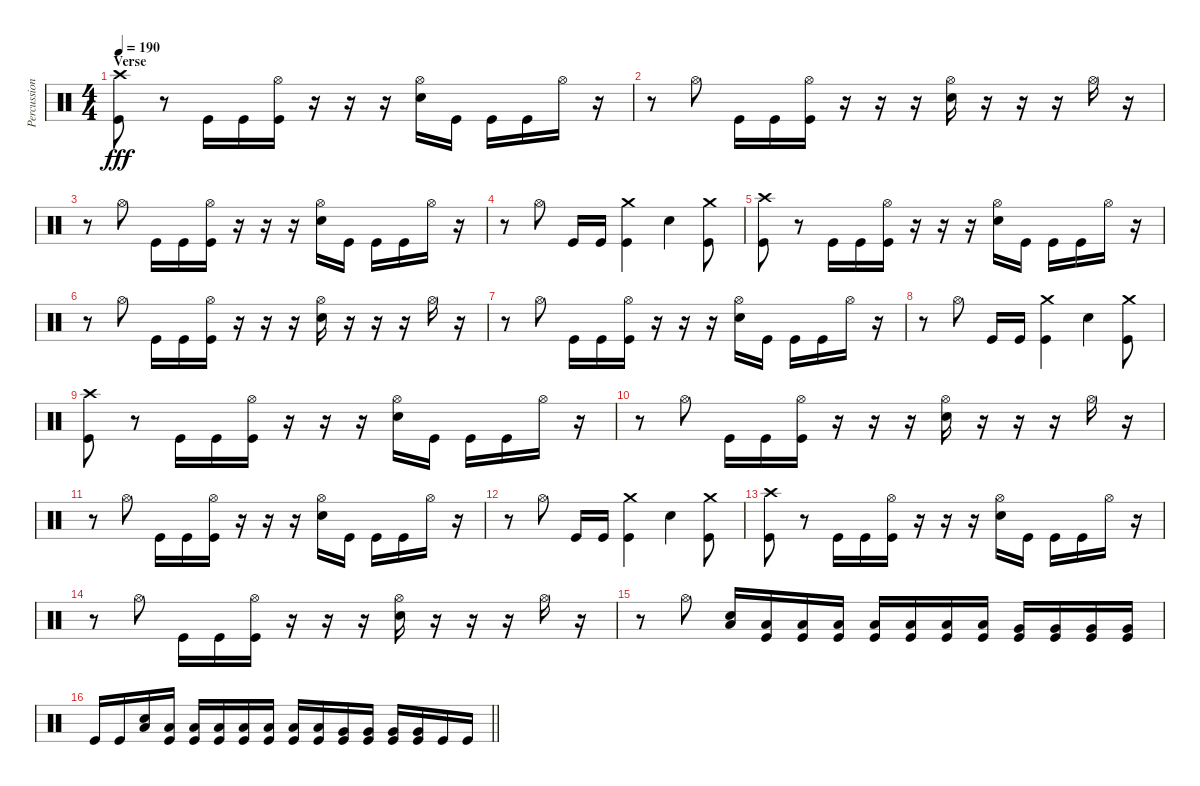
\track ("Percussioni" "Percussion") {instrument percussion}
\staff {score}
\articulation defaults
\ts (4 4)
\section ("" "Verse")
\tempo 190
\clef neutral
\ks c
("Crash high (hit)" "Kick (hit)").8{dy fff} r.8 "Kick (hit)".16 "Kick (hit)".16 ("Hi-Hat (open)" "Kick (hit)").16 r.16 r.16 r.16 ("Hi-Hat (open)" "Snare (hit) 2").16 "Kick (hit)".16 "Kick (hit)".16 "Kick (hit)".16 "Hi-Hat (open)".16 r.16 |
r.8 "Hi-Hat (open)".8 "Kick (hit)".16 "Kick (hit)".16 ("Hi-Hat (open)" "Kick (hit)").16 r.16 r.16 r.16 ("Hi-Hat (open)" "Snare (hit) 2").16 r.16 r.16 r.16 "Hi-Hat (open)".16 r.16 |
r.8 "Hi-Hat (open)".8 "Kick (hit)".16 "Kick (hit)".16 ("Hi-Hat (open)" "Kick (hit)").16 r.16 r.16 r.16 ("Hi-Hat (open)" "Snare (hit) 2").16 "Kick (hit)".16 "Kick (hit)".16 "Kick (hit)".16 "Hi-Hat (open)".16 r.16 |
r.8 "Hi-Hat (open)".8 "Kick (hit)".16 "Kick (hit)".16 ("Crash medium (hit)" "Kick (hit)").4 "Snare (hit) 2".4 ("Crash medium (hit)" "Kick (hit)").8 |
("Crash high (hit)" "Kick (hit)").8 r.8 "Kick (hit)".16 "Kick (hit)".16 ("Hi-Hat (open)" "Kick (hit)").16 r.16 r.16 r.16 ("Hi-Hat (open)" "Snare (hit) 2").16 "Kick (hit)".16 "Kick (hit)".16 "Kick (hit)".16 "Hi-Hat (open)".16 r.16 |
r.8 "Hi-Hat (open)".8 "Kick (hit)".16 "Kick (hit)".16 ("Hi-Hat (open)" "Kick (hit)").16 r.16 r.16 r.16 ("Hi-Hat (open)" "Snare (hit) 2").16 r.16 r.16 r.16 "Hi-Hat (open)".16 r.16 |
r.8 "Hi-Hat (open)".8 "Kick (hit)".16 "Kick (hit)".16 ("Hi-Hat (open)" "Kick (hit)").16 r.16 r.16 r.16 ("Hi-Hat (open)" "Snare (hit) 2").16 "Kick (hit)".16 "Kick (hit)".16 "Kick (hit)".16 "Hi-Hat (open)".16 r.16 |
r.8 "Hi-Hat (open)".8 "Kick (hit)".16 "Kick (hit)".16 ("Crash medium (hit)" "Kick (hit)").4 "Snare (hit) 2".4 ("Crash medium (hit)" "Kick (hit)").8 |
("Crash high (hit)" "Kick (hit)").8 r.8 "Kick (hit)".16 "Kick (hit)".16 ("Hi-Hat (open)" "Kick (hit)").16 r.16 r.16 r.16 ("Hi-Hat (open)" "Snare (hit) 2").16 "Kick (hit)".16 "Kick (hit)".16 "Kick (hit)".16 "Hi-Hat (open)".16 r.16 |
r.8 "Hi-Hat (open)".8 "Kick (hit)".16 "Kick (hit)".16 ("Hi-Hat (open)" "Kick (hit)").16 r.16 r.16 r.16 ("Hi-Hat (open)" "Snare (hit) 2").16 r.16 r.16 r.16 "Hi-Hat (open)".16 r.16 |
r.8 "Hi-Hat (open)".8 "Kick (hit)".16 "Kick (hit)".16 ("Hi-Hat (open)" "Kick (hit)").16 r.16 r.16 r.16 ("Hi-Hat (open)" "Snare (hit) 2").16 "Kick (hit)".16 "Kick (hit)".16 "Kick (hit)".16 "Hi-Hat (open)".16 r.16 |
r.8 "Hi-Hat (open)".8 "Kick (hit)".16 "Kick (hit)".16 ("Crash medium (hit)" "Kick (hit)").4 "Snare (hit) 2".4 ("Crash medium (hit)" "Kick (hit)").8 |
("Crash high (hit)" "Kick (hit)").8 r.8 "Kick (hit)".16 "Kick (hit)".16 ("Hi-Hat (open)" "Kick (hit)").16 r.16 r.16 r.16 ("Hi-Hat (open)" "Snare (hit) 2").16 "Kick (hit)".16 "Kick (hit)".16 "Kick (hit)".16 "Hi-Hat (open)".16 r.16 |
r.8 "Hi-Hat (open)".8 "Kick (hit)".16 "Kick (hit)".16 ("Hi-Hat (open)" "Kick (hit)").16 r.16 r.16 r.16 ("Hi-Hat (open)" "Snare (hit) 2").16 r.16 r.16 r.16 "Hi-Hat (open)".16 r.16 |
r.8 "Hi-Hat (open)".8 ("Low Floor Tom (hit)" "Snare (hit) 2").16 ("Low Floor Tom (hit)" "Kick (hit)").16 ("Low Floor Tom (hit)" "Kick (hit)").16 ("Low Floor Tom (hit)" "Kick (hit)").16 ("Low Tom (hit)" "Kick (hit)").16 ("Low Tom (hit)" "Kick (hit)").16 ("Low Tom (hit)" "Kick (hit)").16 ("Low Tom (hit)" "Kick (hit)").16 ("Very Low Tom (hit)" "Kick (hit)").16 ("Very Low Tom (hit)" "Kick (hit)").16 ("Very Low Tom (hit)" "Kick (hit)").16 ("Very Low Tom (hit)" "Kick (hit)").16 |
\barLineRight lightlight "Kick (hit)".16 "Kick (hit)".16
("Low Floor Tom (hit)" "Snare (hit) 2").16 ("Low Floor Tom (hit)" "Kick (hit)").16 ("Low Floor Tom (hit)" "Kick (hit)").16 ("Low Floor Tom (hit)" "Kick (hit)").16 ("Low Tom (hit)" "Kick (hit)").16 ("Low Tom (hit)" "Kick (hit)").16 ("Low Tom (hit)" "Kick (hit)").16 ("Low Tom (hit)" "Kick (hit)").16 ("Very Low Tom (hit)" "Kick (hit)").16 ("Very Low Tom (hit)" "Kick (hit)").16 ("Very Low Tom (hit)" "Kick (hit)").16 ("Very Low Tom (hit)" "Kick (hit)").16 "Kick (hit)".16 "Kick (hit)".16
